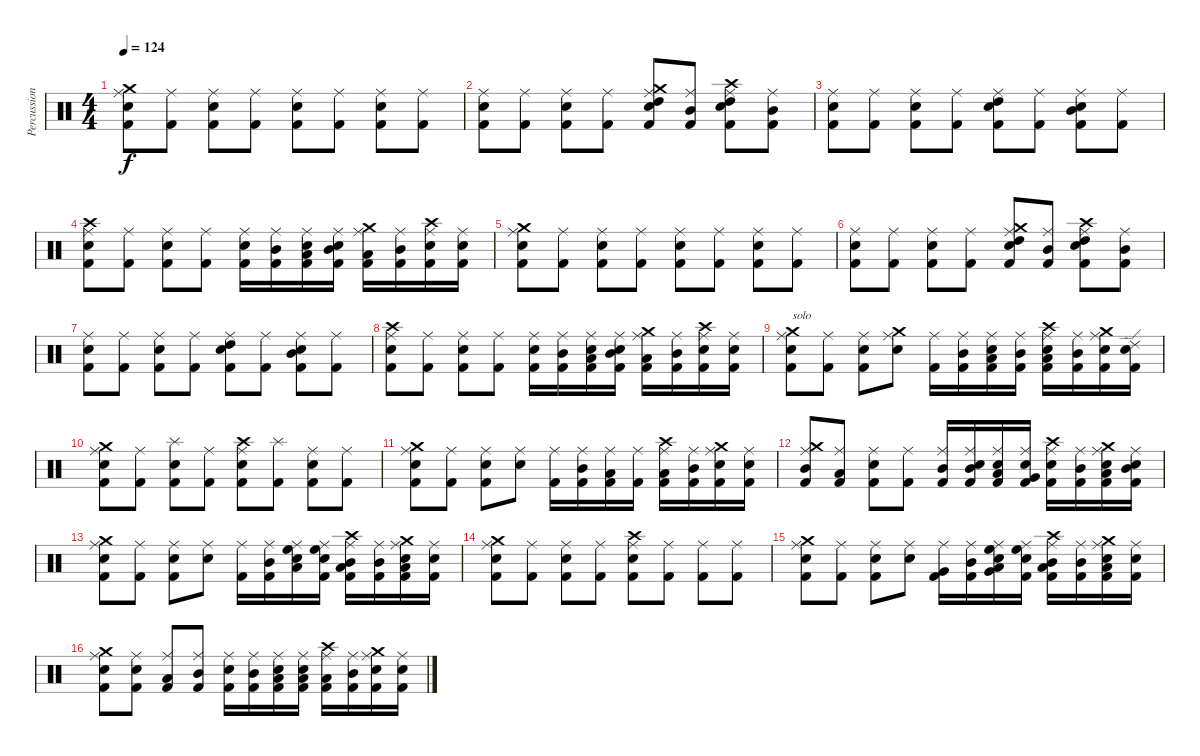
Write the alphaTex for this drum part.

\track ("Percussions" "Percussion") {instrument percussion}
\staff {score}
\articulation defaults
\ts (4 4)
\tempo 124
\clef neutral
\ks c
("Kick (hit) 2" "Electric Snare (hit)" "Crash medium (hit)" "Ride (middle)").8{dy f} ("Kick (hit) 2" "Ride (middle)").8 ("Kick (hit) 2" "Electric Snare (hit)" "Ride (middle)").8 ("Kick (hit) 2" "Ride (middle)").8 ("Kick (hit) 2" "Electric Snare (hit)" "Ride (middle)").8 ("Kick (hit) 2" "Ride (middle)").8 ("Kick (hit) 2" "Electric Snare (hit)" "Ride (middle)").8 ("Kick (hit) 2" "Ride (middle)").8 |
("Kick (hit) 2" "Electric Snare (hit)" "Ride (middle)").8 ("Kick (hit) 2" "Ride (middle)").8 ("Kick (hit) 2" "Electric Snare (hit)" "Ride (middle)").8 ("Kick (hit) 2" "Ride (middle)").8 ("Kick (hit) 2" "Electric Snare (hit)" "High Tom (hit)" "Crash medium (hit)" "Ride (middle)").8 ("Kick (hit) 2" "Mid Tom (hit)" "Ride (middle)").8 ("Kick (hit) 2" "Electric Snare (hit)" "High Tom (hit)" "Crash high (hit)" "Ride (middle)").8 ("Kick (hit) 2" "Mid Tom (hit)" "Ride (middle)").8 |
("Kick (hit) 2" "Electric Snare (hit)" "Ride (middle)").8 ("Kick (hit) 2" "Ride (middle)").8 ("Kick (hit) 2" "Electric Snare (hit)" "Ride (middle)").8 ("Kick (hit) 2" "Ride (middle)").8 ("Kick (hit) 2" "Electric Snare (hit)" "High Tom (hit)" "Ride (middle)").8 ("Kick (hit) 2" "Ride (middle)").8 ("Kick (hit) 2" "Electric Snare (hit)" "Mid Tom (hit)" "Ride (middle)").8 ("Kick (hit) 2" "Ride (middle)").8 |
("Kick (hit) 2" "Electric Snare (hit)" "Crash high (hit)" "Ride (middle)").8 ("Kick (hit) 2" "Ride (middle)").8 ("Kick (hit) 2" "Electric Snare (hit)" "Ride (middle)").8 ("Kick (hit) 2" "Ride (middle)").8 ("Kick (hit) 2" "Electric Snare (hit)" "Ride (middle)").16 ("Kick (hit) 2" "Mid Tom (hit)" "Ride (middle)").16 ("Low Tom (hit)" "Kick (hit) 2" "Electric Snare (hit)" "Ride (middle)").16 ("Kick (hit) 2" "Mid Tom (hit)" "Electric Snare (hit)" "Ride (middle)").16 ("Kick (hit) 2" "Low Tom (hit)" "Crash medium (hit)" "Ride (middle)").16 ("Kick (hit) 2" "Mid Tom (hit)" "Ride (middle)").16 ("Kick (hit) 2" "Electric Snare (hit)" "Crash high (hit)" "Ride (middle)").16 ("Kick (hit) 2" "Electric Snare (hit)" "Ride (middle)").16 |
("Kick (hit) 2" "Electric Snare (hit)" "Crash medium (hit)" "Ride (middle)").8 ("Kick (hit) 2" "Ride (middle)").8 ("Kick (hit) 2" "Electric Snare (hit)" "Ride (middle)").8 ("Kick (hit) 2" "Ride (middle)").8 ("Kick (hit) 2" "Electric Snare (hit)" "Ride (middle)").8 ("Kick (hit) 2" "Ride (middle)").8 ("Kick (hit) 2" "Electric Snare (hit)" "Ride (middle)").8 ("Kick (hit) 2" "Ride (middle)").8 |
("Kick (hit) 2" "Electric Snare (hit)" "Ride (middle)").8 ("Kick (hit) 2" "Ride (middle)").8 ("Kick (hit) 2" "Electric Snare (hit)" "Ride (middle)").8 ("Kick (hit) 2" "Ride (middle)").8 ("Kick (hit) 2" "Electric Snare (hit)" "High Tom (hit)" "Crash medium (hit)" "Ride (middle)").8 ("Kick (hit) 2" "Mid Tom (hit)" "Ride (middle)").8 ("Kick (hit) 2" "Electric Snare (hit)" "High Tom (hit)" "Crash high (hit)" "Ride (middle)").8 ("Kick (hit) 2" "Mid Tom (hit)" "Ride (middle)").8 |
("Kick (hit) 2" "Electric Snare (hit)" "Ride (middle)").8 ("Kick (hit) 2" "Ride (middle)").8 ("Kick (hit) 2" "Electric Snare (hit)" "Ride (middle)").8 ("Kick (hit) 2" "Ride (middle)").8 ("Kick (hit) 2" "Electric Snare (hit)" "High Tom (hit)" "Ride (middle)").8 ("Kick (hit) 2" "Ride (middle)").8 ("Kick (hit) 2" "Electric Snare (hit)" "Mid Tom (hit)" "Ride (middle)").8 ("Kick (hit) 2" "Ride (middle)").8 |
("Kick (hit) 2" "Electric Snare (hit)" "Crash high (hit)" "Ride (middle)").8 ("Kick (hit) 2" "Ride (middle)").8 ("Kick (hit) 2" "Electric Snare (hit)" "Ride (middle)").8 ("Kick (hit) 2" "Ride (middle)").8 ("Kick (hit) 2" "Electric Snare (hit)" "Ride (middle)").16 ("Kick (hit) 2" "Mid Tom (hit)" "Ride (middle)").16 ("Low Tom (hit)" "Kick (hit) 2" "Electric Snare (hit)" "Ride (middle)").16 ("Kick (hit) 2" "Mid Tom (hit)" "Electric Snare (hit)" "Ride (middle)").16 ("Kick (hit) 2" "Low Tom (hit)" "Crash medium (hit)" "Ride (middle)").16 ("Kick (hit) 2" "Mid Tom (hit)" "Ride (middle)").16 ("Kick (hit) 2" "Electric Snare (hit)" "Crash high (hit)" "Ride (middle)").16 ("Kick (hit) 2" "Electric Snare (hit)" "Ride (middle)").16 |
("Kick (hit) 2" "Electric Snare (hit)" "Crash medium (hit)" "Ride (middle)").8{txt "solo"} ("Kick (hit) 2" "Ride (middle)").8 ("Kick (hit) 2" "Electric Snare (hit)" "Ride (middle)").8 ("Electric Snare (hit)" "Crash medium (hit)" "Ride (middle)").8 ("Kick (hit) 2" "Ride (middle)").16 ("Kick (hit) 2" "Mid Tom (hit)" "Ride (middle)").16 ("Low Tom (hit)" "Kick (hit) 2" "Electric Snare (hit)" "Ride (middle)").16 ("Kick (hit) 2" "Mid Tom (hit)" "Ride (middle)").16 ("Kick (hit) 2" "Low Tom (hit)" "Electric Snare (hit)" "Crash high (hit)" "Ride (middle)").16 ("Kick (hit) 2" "Mid Tom (hit)" "Ride (middle)").16 ("Kick (hit) 2" "Electric Snare (hit)" "Crash medium (hit)" "Ride (middle)").16 ("Kick (hit) 2" "Electric Snare (hit)" "Ride (edge) 2").16 |
("Kick (hit) 2" "Electric Snare (hit)" "Crash medium (hit)" "Ride (middle)").8 ("Kick (hit) 2" "Ride (middle)").8 ("Kick (hit) 2" "Electric Snare (hit)" "Splash (hit)").8 ("Kick (hit) 2" "Ride (middle)").8 ("Kick (hit) 2" "Electric Snare (hit)" "Crash high (hit)" "Ride (middle)").8 ("Kick (hit) 2" "Splash (hit)").8 ("Kick (hit) 2" "Electric Snare (hit)" "Ride (middle)").8 ("Kick (hit) 2" "Ride (middle)").8 |
("Kick (hit) 2" "Electric Snare (hit)" "Crash medium (hit)" "Ride (middle)").8 ("Kick (hit) 2" "Ride (middle)").8 ("Kick (hit) 2" "Electric Snare (hit)" "Ride (middle)").8 ("Electric Snare (hit)" "Ride (middle)").8 ("Kick (hit) 2" "Ride (middle)").16 ("Kick (hit) 2" "Mid Tom (hit)" "Ride (middle)").16 ("Low Tom (hit)" "Kick (hit) 2" "Ride (middle)").16 ("Kick (hit) 2" "Ride (middle)").16 ("Kick (hit) 2" "Low Tom (hit)" "Crash high (hit)" "Ride (middle)").16 ("Kick (hit) 2" "Mid Tom (hit)" "Ride (middle)").16 ("Kick (hit) 2" "Electric Snare (hit)" "Crash medium (hit)" "Ride (middle)").16 ("Kick (hit) 2" "Electric Snare (hit)" "Ride (middle)").16 |
("Kick (hit) 2" "Mid Tom (hit)" "Crash medium (hit)" "Ride (middle)").8 ("Kick (hit) 2" "Low Tom (hit)" "Ride (middle)").8 ("Kick (hit) 2" "Electric Snare (hit)" "Ride (middle)").8 ("Kick (hit) 2" "Ride (middle)").8 ("Kick (hit) 2" "Mid Tom (hit)" "Ride (middle)").16 ("Kick (hit) 2" "Electric Snare (hit)" "Mid Tom (hit)" "Ride (middle)").16 ("Kick (hit) 2" "Low Tom (hit)" "Electric Snare (hit)" "Ride (middle)").16 ("Kick (hit) 2" "Very Low Tom (hit)" "Electric Snare (hit)" "Ride (middle)").16 ("Kick (hit) 2" "Electric Snare (hit)" "Crash high (hit)" "Ride (middle)").16 ("Kick (hit) 2" "Mid Tom (hit)" "Ride (middle)").16 ("Kick (hit) 2" "Low Tom (hit)" "Electric Snare (hit)" "Crash medium (hit)" "Ride (middle)").16 ("Kick (hit) 2" "Mid Tom (hit)" "Electric Snare (hit)" "Ride (middle)").16 |
("Kick (hit) 2" "Electric Snare (hit)" "Crash medium (hit)" "Ride (middle)").8 ("Kick (hit) 2" "Ride (middle)").8 ("Kick (hit) 2" "Electric Snare (hit)" "Ride (middle)").8 ("Electric Snare (hit)" "Ride (middle)").8 ("Kick (hit) 2" "Ride (middle)").16 ("Kick (hit) 2" "Mid Tom (hit)" "Ride (middle)").16 ("Low Tom (hit)" "High Floor Tom (hit)" "Electric Snare (hit)" "Ride (middle)").16 ("Kick (hit) 2" "High Floor Tom (hit)" "Electric Snare (hit)" "Ride (middle)").16 ("Kick (hit) 2" "Low Tom (hit)" "Mid Tom (hit)" "Crash high (hit)" "Ride (middle)").16 ("Kick (hit) 2" "Mid Tom (hit)" "Ride (middle)").16 ("Kick (hit) 2" "Low Tom (hit)" "Electric Snare (hit)" "Crash medium (hit)" "Ride (middle)").16 ("Kick (hit) 2" "Electric Snare (hit)" "Ride (middle)").16 |
("Kick (hit) 2" "Electric Snare (hit)" "Crash medium (hit)" "Ride (middle)").8 ("Kick (hit) 2" "Ride (middle)").8 ("Kick (hit) 2" "Electric Snare (hit)" "Ride (middle)").8 ("Kick (hit) 2" "Ride (middle)").8 ("Kick (hit) 2" "Electric Snare (hit)" "Crash high (hit)" "Ride (middle)").8 ("Kick (hit) 2" "Ride (middle)").8 ("Kick (hit) 2" "Ride (middle)").8 ("Kick (hit) 2" "Ride (middle)").8 |
("Kick (hit) 2" "Electric Snare (hit)" "Crash medium (hit)" "Ride (middle)").8 ("Kick (hit) 2" "Ride (middle)").8 ("Kick (hit) 2" "Electric Snare (hit)" "Ride (middle)").8 ("Electric Snare (hit)" "Ride (middle)").8 ("Very Low Tom (hit)" "Kick (hit) 2" "Ride (middle)").16 ("Kick (hit) 2" "Mid Tom (hit)" "Ride (middle)").16 ("Low Tom (hit)" "High Floor Tom (hit)" "Very Low Tom (hit)" "Electric Snare (hit)" "Ride (middle)").16 ("Kick (hit) 2" "High Floor Tom (hit)" "Electric Snare (hit)" "Ride (middle)").16 ("Kick (hit) 2" "Low Tom (hit)" "Mid Tom (hit)" "Crash high (hit)" "Ride (middle)").16 ("Kick (hit) 2" "Mid Tom (hit)" "Ride (middle)").16 ("Kick (hit) 2" "Low Tom (hit)" "Electric Snare (hit)" "Crash medium (hit)" "Ride (middle)").16 ("Kick (hit) 2" "Electric Snare (hit)" "Ride (middle)").16 |
("Kick (hit) 2" "Electric Snare (hit)" "Crash medium (hit)" "Ride (middle)").8 ("Kick (hit) 2" "Electric Snare (hit)" "Ride (middle)").8 ("Kick (hit) 2" "Low Tom (hit)" "Ride (middle)").8 ("Kick (hit) 2" "Mid Tom (hit)" "Ride (middle)").8 ("Kick (hit) 2" "Electric Snare (hit)" "Ride (middle)").16 ("Kick (hit) 2" "Mid Tom (hit)" "Ride (middle)").16 ("Kick (hit) 2" "Low Tom (hit)" "Electric Snare (hit)" "Ride (middle)").16 ("Kick (hit) 2" "Low Floor Tom (hit)" "Electric Snare (hit)" "Ride (middle)").16 ("Kick (hit) 2" "Low Tom (hit)" "Crash high (hit)" "Ride (middle)").16 ("Kick (hit) 2" "Mid Tom (hit)" "Ride (middle)").16 ("Kick (hit) 2" "Electric Snare (hit)" "Crash medium (hit)" "Ride (middle)").16 ("Kick (hit) 2" "Electric Snare (hit)" "Ride (middle)").16
